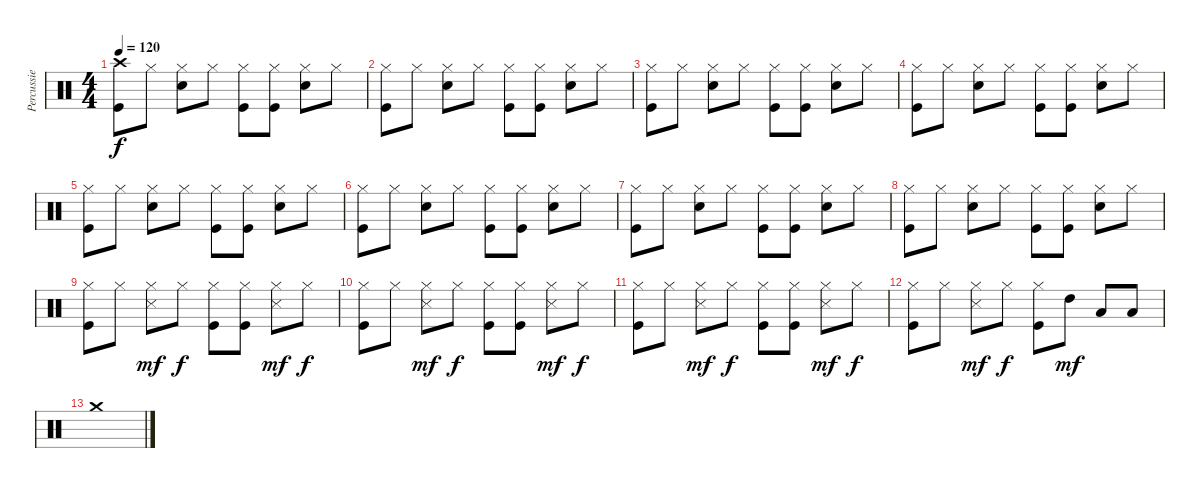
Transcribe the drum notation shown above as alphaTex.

\track ("Percussie" "Percussie") {instrument percussion}
\staff {score}
\articulation defaults
\ts (4 4)
\tempo 120
\clef neutral
\ks c
("Kick (hit)" "Crash high (hit)").8{dy f} "Hi-Hat (closed)".8 ("Snare (hit) 2" "Hi-Hat (closed)").8 "Hi-Hat (closed)".8 ("Kick (hit)" "Hi-Hat (closed)").8 ("Kick (hit)" "Hi-Hat (closed)").8 ("Snare (hit) 2" "Hi-Hat (closed)").8 "Hi-Hat (closed)".8 |
("Kick (hit)" "Hi-Hat (closed)").8 "Hi-Hat (closed)".8 ("Snare (hit) 2" "Hi-Hat (closed)").8 "Hi-Hat (closed)".8 ("Kick (hit)" "Hi-Hat (closed)").8 ("Kick (hit)" "Hi-Hat (closed)").8 ("Snare (hit) 2" "Hi-Hat (closed)").8 "Hi-Hat (closed)".8 |
("Kick (hit)" "Hi-Hat (closed)").8 "Hi-Hat (closed)".8 ("Snare (hit) 2" "Hi-Hat (closed)").8 "Hi-Hat (closed)".8 ("Kick (hit)" "Hi-Hat (closed)").8 ("Kick (hit)" "Hi-Hat (closed)").8 ("Snare (hit) 2" "Hi-Hat (closed)").8 "Hi-Hat (closed)".8 |
("Kick (hit)" "Hi-Hat (closed)").8 "Hi-Hat (closed)".8 ("Snare (hit) 2" "Hi-Hat (closed)").8 "Hi-Hat (closed)".8 ("Kick (hit)" "Hi-Hat (closed)").8 ("Kick (hit)" "Hi-Hat (closed)").8 ("Snare (hit) 2" "Hi-Hat (closed)").8 "Hi-Hat (closed)".8 |
("Kick (hit)" "Hi-Hat (closed)").8 "Hi-Hat (closed)".8 ("Snare (hit) 2" "Hi-Hat (closed)").8 "Hi-Hat (closed)".8 ("Kick (hit)" "Hi-Hat (closed)").8 ("Kick (hit)" "Hi-Hat (closed)").8 ("Snare (hit) 2" "Hi-Hat (closed)").8 "Hi-Hat (closed)".8 |
("Kick (hit)" "Hi-Hat (closed)").8 "Hi-Hat (closed)".8 ("Snare (hit) 2" "Hi-Hat (closed)").8 "Hi-Hat (closed)".8 ("Kick (hit)" "Hi-Hat (closed)").8 ("Kick (hit)" "Hi-Hat (closed)").8 ("Snare (hit) 2" "Hi-Hat (closed)").8 "Hi-Hat (closed)".8 |
("Kick (hit)" "Hi-Hat (closed)").8 "Hi-Hat (closed)".8 ("Snare (hit) 2" "Hi-Hat (closed)").8 "Hi-Hat (closed)".8 ("Kick (hit)" "Hi-Hat (closed)").8 ("Kick (hit)" "Hi-Hat (closed)").8 ("Snare (hit) 2" "Hi-Hat (closed)").8 "Hi-Hat (closed)".8 |
("Kick (hit)" "Hi-Hat (closed)").8 "Hi-Hat (closed)".8 ("Snare (hit) 2" "Hi-Hat (closed)").8 "Hi-Hat (closed)".8 ("Kick (hit)" "Hi-Hat (closed)").8 ("Kick (hit)" "Hi-Hat (closed)").8 ("Snare (hit) 2" "Hi-Hat (closed)").8 "Hi-Hat (closed)".8 |
("Kick (hit)" "Hi-Hat (closed)").8 "Hi-Hat (closed)".8 ("Snare (side stick) 3" "Hi-Hat (closed)").8{dy mf} "Hi-Hat (closed)".8{dy f} ("Kick (hit)" "Hi-Hat (closed)").8 ("Kick (hit)" "Hi-Hat (closed)").8 ("Snare (side stick) 3" "Hi-Hat (closed)").8{dy mf} "Hi-Hat (closed)".8{dy f} |
("Kick (hit)" "Hi-Hat (closed)").8 "Hi-Hat (closed)".8 ("Snare (side stick) 3" "Hi-Hat (closed)").8{dy mf} "Hi-Hat (closed)".8{dy f} ("Kick (hit)" "Hi-Hat (closed)").8 ("Kick (hit)" "Hi-Hat (closed)").8 ("Snare (side stick) 3" "Hi-Hat (closed)").8{dy mf} "Hi-Hat (closed)".8{dy f} |
("Kick (hit)" "Hi-Hat (closed)").8 "Hi-Hat (closed)".8 ("Snare (side stick) 3" "Hi-Hat (closed)").8{dy mf} "Hi-Hat (closed)".8{dy f} ("Kick (hit)" "Hi-Hat (closed)").8 ("Kick (hit)" "Hi-Hat (closed)").8 ("Snare (side stick) 3" "Hi-Hat (closed)").8{dy mf} "Hi-Hat (closed)".8{dy f} |
("Kick (hit)" "Hi-Hat (closed)").8 "Hi-Hat (closed)".8 ("Snare (side stick) 3" "Hi-Hat (closed)").8{dy mf} "Hi-Hat (closed)".8{dy f} ("Kick (hit)" "Hi-Hat (closed)").8 "High Tom (hit)".8{dy mf} "Low Tom (hit)".8 "Low Floor Tom (hit)".8 |
"Crash medium (hit)".1
